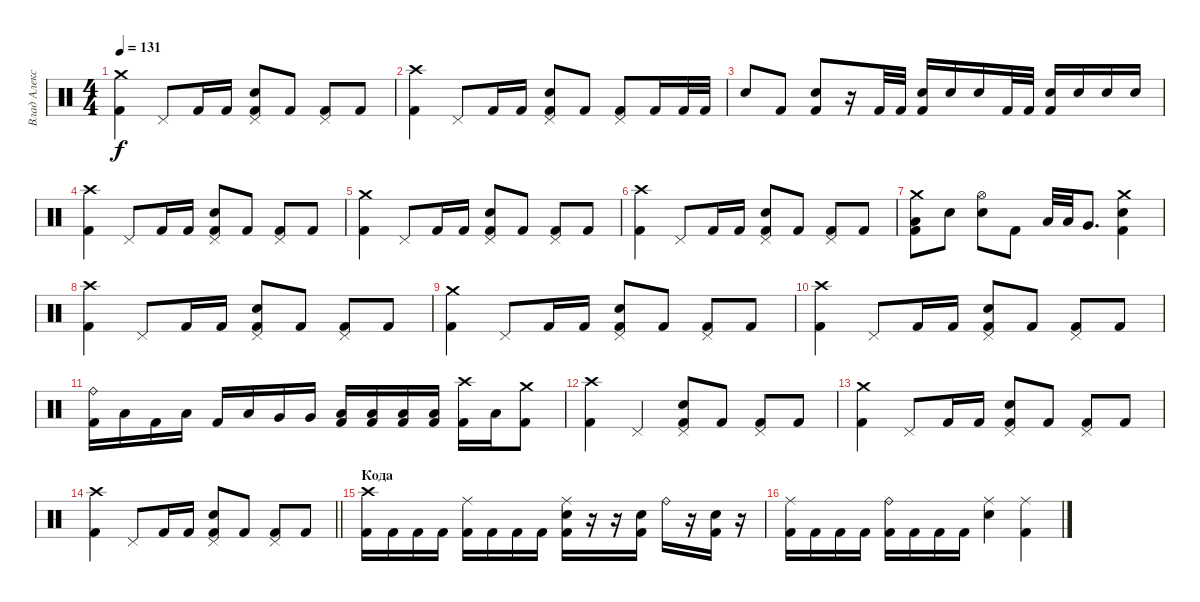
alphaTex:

\track ("Влад Алексеенко" "Влад Алекс") {instrument percussion}
\staff {score}
\articulation defaults
\ts (4 4)
\tempo 131
\clef neutral
\ks c
("Crash medium (hit)" "Kick (hit) 2").4{dy f} "Pedal Hi-Hat (hit)".8 "Kick (hit) 2".16 "Kick (hit) 2".16 ("Pedal Hi-Hat (hit)" "Electric Snare (hit)" "Kick (hit) 2").8 "Kick (hit) 2".8 ("Pedal Hi-Hat (hit)" "Kick (hit) 2").8 "Kick (hit) 2".8 |
("Crash high (hit)" "Kick (hit) 2").4 "Pedal Hi-Hat (hit)".8 "Kick (hit) 2".16 "Kick (hit) 2".16 ("Pedal Hi-Hat (hit)" "Electric Snare (hit)" "Kick (hit) 2").8 "Kick (hit) 2".8 ("Pedal Hi-Hat (hit)" "Kick (hit) 2").8 "Kick (hit) 2".16 "Kick (hit) 2".32 "Kick (hit) 2".32 |
"Electric Snare (hit)".8 "Kick (hit) 2".8 ("Electric Snare (hit)" "Kick (hit) 2").8 r.16 "Kick (hit) 2".32 "Kick (hit) 2".32 ("Electric Snare (hit)" "Kick (hit) 2").16 "Electric Snare (hit)".16 "Electric Snare (hit)".16 "Kick (hit) 2".32 "Kick (hit) 2".32 ("Electric Snare (hit)" "Kick (hit) 2").16 "Electric Snare (hit)".16 "Electric Snare (hit)".16 "Electric Snare (hit)".16 |
("Crash high (hit)" "Kick (hit) 2").4 "Pedal Hi-Hat (hit)".8 "Kick (hit) 2".16 "Kick (hit) 2".16 ("Pedal Hi-Hat (hit)" "Electric Snare (hit)" "Kick (hit) 2").8 "Kick (hit) 2".8 ("Pedal Hi-Hat (hit)" "Kick (hit) 2").8 "Kick (hit) 2".8 |
("Crash medium (hit)" "Kick (hit) 2").4 "Pedal Hi-Hat (hit)".8 "Kick (hit) 2".16 "Kick (hit) 2".16 ("Pedal Hi-Hat (hit)" "Electric Snare (hit)" "Kick (hit) 2").8 "Kick (hit) 2".8 ("Pedal Hi-Hat (hit)" "Kick (hit) 2").8 "Kick (hit) 2".8 |
("Crash high (hit)" "Kick (hit) 2").4 "Pedal Hi-Hat (hit)".8 "Kick (hit) 2".16 "Kick (hit) 2".16 ("Pedal Hi-Hat (hit)" "Electric Snare (hit)" "Kick (hit) 2").8 "Kick (hit) 2".8 ("Pedal Hi-Hat (hit)" "Kick (hit) 2").8 "Kick (hit) 2".8 |
("Low Tom (hit)" "Crash medium (hit)" "Kick (hit) 2").8 "Electric Snare (hit)".8 ("Hi-Hat (open)" "Electric Snare (hit)").8 "Kick (hit) 2".8 "Low Tom (hit)".32 "Low Tom (hit)".32 "Very Low Tom (hit)".8{d} ("Crash medium (hit)" "Electric Snare (hit)" "Kick (hit) 2").4 |
("Crash high (hit)" "Kick (hit) 2").4 "Pedal Hi-Hat (hit)".8 "Kick (hit) 2".16 "Kick (hit) 2".16 ("Pedal Hi-Hat (hit)" "Electric Snare (hit)" "Kick (hit) 2").8 "Kick (hit) 2".8 ("Pedal Hi-Hat (hit)" "Kick (hit) 2").8 "Kick (hit) 2".8 |
("Crash medium (hit)" "Kick (hit) 2").4 "Pedal Hi-Hat (hit)".8 "Kick (hit) 2".16 "Kick (hit) 2".16 ("Pedal Hi-Hat (hit)" "Electric Snare (hit)" "Kick (hit) 2").8 "Kick (hit) 2".8 ("Pedal Hi-Hat (hit)" "Kick (hit) 2").8 "Kick (hit) 2".8 |
("Crash high (hit)" "Kick (hit) 2").4 "Pedal Hi-Hat (hit)".8 "Kick (hit) 2".16 "Kick (hit) 2".16 ("Pedal Hi-Hat (hit)" "Electric Snare (hit)" "Kick (hit) 2").8 "Kick (hit) 2".8 ("Pedal Hi-Hat (hit)" "Kick (hit) 2").8 "Kick (hit) 2".8 |
("Ride (bell)" "Kick (hit) 2").16 "Low Floor Tom (hit)".16 "Kick (hit) 2".16 "Low Floor Tom (hit)".16 "Kick (hit) 2".16 "Low Floor Tom (hit)".16 "Very Low Tom (hit)".16 "Very Low Tom (hit)".16 ("Low Tom (hit)" "Kick (hit) 2").16 ("Low Tom (hit)" "Kick (hit) 2").16 ("Low Tom (hit)" "Kick (hit) 2").16 ("Low Tom (hit)" "Kick (hit) 2").16 ("Crash high (hit)" "Kick (hit) 2").16 "Low Floor Tom (hit)".16 ("Crash medium (hit)" "Kick (hit) 2").8 |
("Crash high (hit)" "Kick (hit) 2").4 "Pedal Hi-Hat (hit)".4 ("Pedal Hi-Hat (hit)" "Electric Snare (hit)" "Kick (hit) 2").8 "Kick (hit) 2".8 ("Pedal Hi-Hat (hit)" "Kick (hit) 2").8 "Kick (hit) 2".8 |
("Crash medium (hit)" "Kick (hit) 2").4 "Pedal Hi-Hat (hit)".8 "Kick (hit) 2".16 "Kick (hit) 2".16 ("Pedal Hi-Hat (hit)" "Electric Snare (hit)" "Kick (hit) 2").8 "Kick (hit) 2".8 ("Pedal Hi-Hat (hit)" "Kick (hit) 2").8 "Kick (hit) 2".8 |
\barLineRight lightlight
("Crash high (hit)" "Kick (hit) 2").4 "Pedal Hi-Hat (hit)".8 "Kick (hit) 2".16 "Kick (hit) 2".16 ("Pedal Hi-Hat (hit)" "Electric Snare (hit)" "Kick (hit) 2").8 "Kick (hit) 2".8 ("Pedal Hi-Hat (hit)" "Kick (hit) 2").8 "Kick (hit) 2".8 |
\section ("" "Кода")
("Crash high (hit)" "Kick (hit) 2").16 "Kick (hit) 2".16 "Kick (hit) 2".16 "Kick (hit) 2".16 ("Ride (middle)" "Kick (hit) 2").16 "Kick (hit) 2".16 "Kick (hit) 2".16 "Kick (hit) 2".16 ("Ride (middle)" "Electric Snare (hit)" "Kick (hit) 2").16 r.16 r.16 ("Electric Snare (hit)" "Kick (hit) 2").16 "Ride (bell)".16 r.16 ("Electric Snare (hit)" "Kick (hit) 2").16 r.16 |
("Ride (middle)" "Kick (hit) 2").16 "Kick (hit) 2".16 "Kick (hit) 2".16 "Kick (hit) 2".16 ("Ride (bell)" "Kick (hit) 2").16 "Kick (hit) 2".16 "Kick (hit) 2".16 "Kick (hit) 2".16 ("Ride (middle)" "Electric Snare (hit)").4 ("Ride (middle)" "Kick (hit) 2").4
